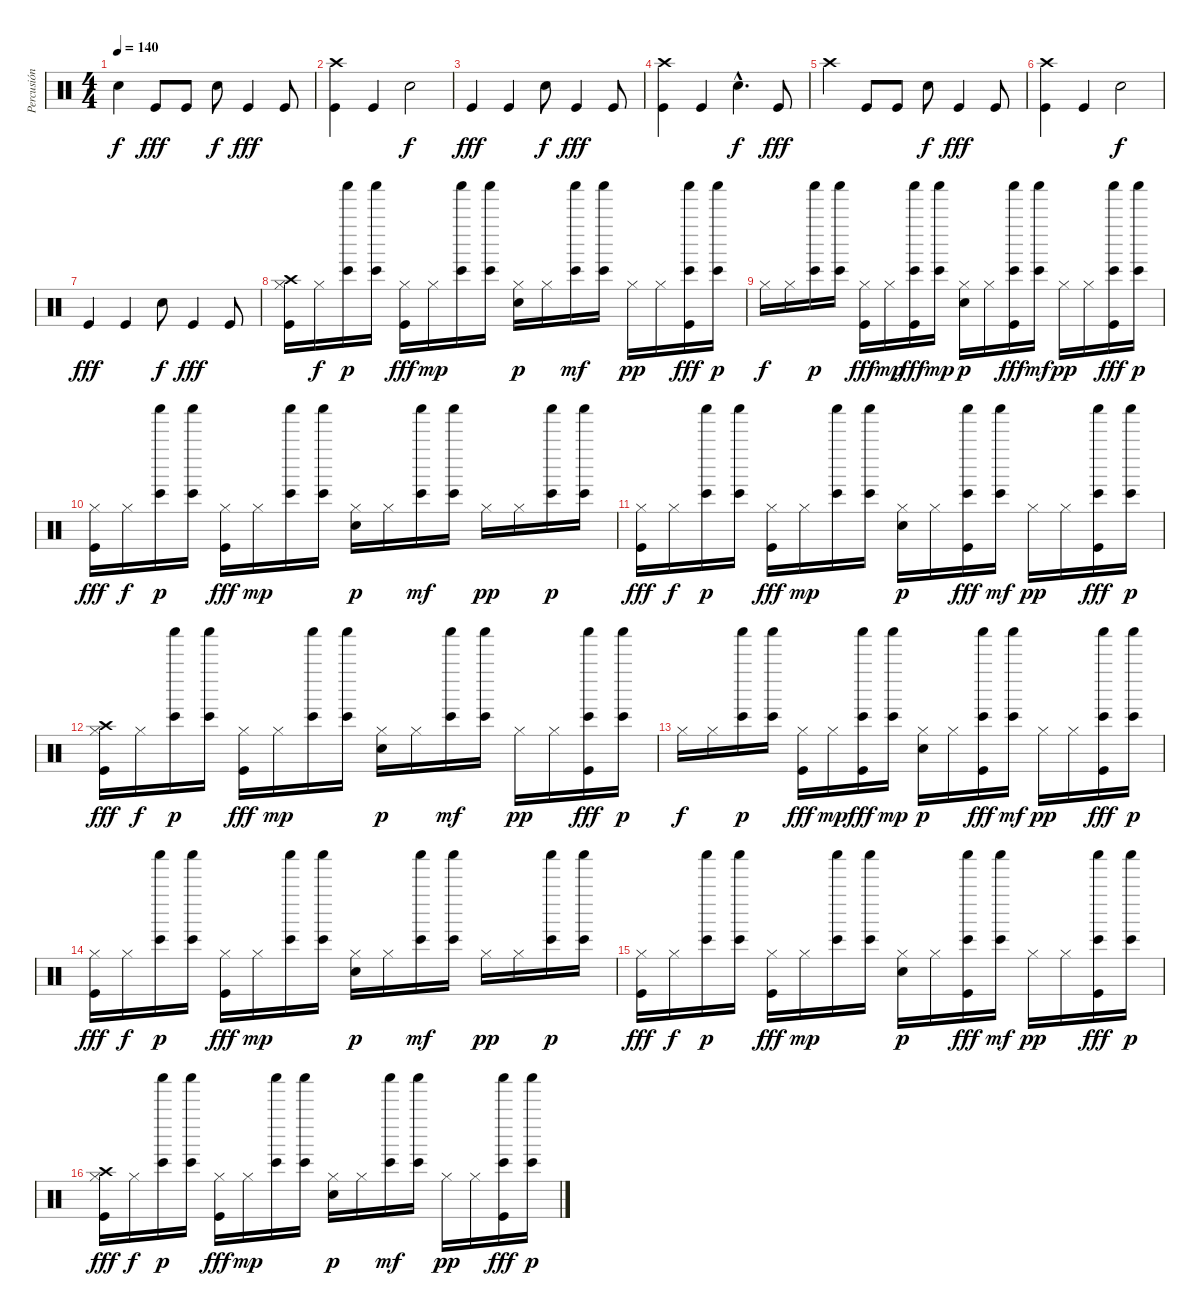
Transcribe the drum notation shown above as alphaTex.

\track ("Percusión" "Percusión") {instrument percussion}
\staff {score}
\articulation defaults
\ts (4 4)
\tempo 140
\clef neutral
\ks c "Snare (hit)"{t}.4{dy f} "Kick (hit)".8{dy fff} "Kick (hit)".8 "Electric Snare (hit)".8{dy f} "Kick (hit)".4{dy fff} "Kick (hit)".8
|
("Crash high (hit)" "Kick (hit)").4 "Kick (hit)".4 "Electric Snare (hit)".2{dy f} |
"Kick (hit)".4{dy fff} "Kick (hit)".4 "Electric Snare (hit)".8{dy f} "Kick (hit)".4{dy fff} "Kick (hit)".8 |
("Crash high (hit)" "Kick (hit)").4 "Kick (hit)".4 "Electric Snare (hit)"{hac}.4{d dy f} "Kick (hit)".8{dy fff} |
"Crash high (hit)".4 "Kick (hit)".8 "Kick (hit)".8 "Electric Snare (hit)".8{dy f} "Kick (hit)".4{dy fff} "Kick (hit)".8 |
("Crash high (hit)" "Kick (hit)").4 "Kick (hit)".4 "Electric Snare (hit)".2{dy f} |
"Kick (hit)".4{dy fff} "Kick (hit)".4 "Electric Snare (hit)".8{dy f} "Kick (hit)".4{dy fff} "Kick (hit)".8 |
("Hi-Hat (closed)" "Crash high (hit)" "Kick (hit)").16{balance 8} "Hi-Hat (closed)".16{dy f} ("Bongo High (hit)" "Shaker (hit)").16{dy p balance 5} ("Bongo High (hit)" "Shaker (hit)").16 ("Hi-Hat (closed)" "Kick (hit)").16{dy fff balance 8} "Hi-Hat (closed)".16{dy mp} ("Bongo High (hit)" "Shaker (hit)").16{balance 6} ("Bongo High (hit)" "Shaker (hit)").16 ("Hi-Hat (closed)" "Electric Snare (hit)").16{dy p balance 8} "Hi-Hat (closed)".16 ("Bongo High (hit)" "Shaker (hit)").16{dy mf balance 10} ("Bongo High (hit)" "Shaker (hit)").16 "Hi-Hat (closed)".16{dy pp balance 8} "Hi-Hat (closed)".16 ("Bongo High (hit)" "Shaker (hit)" "Kick (hit)").16{dy fff balance 11} ("Bongo High (hit)" "Shaker (hit)").16{dy p} |
"Hi-Hat (closed)".16{dy f balance 8} "Hi-Hat (closed)".16 ("Bongo High (hit)" "Shaker (hit)").16{dy p balance 5} ("Bongo High (hit)" "Shaker (hit)").16 ("Hi-Hat (closed)" "Kick (hit)").16{dy fff balance 8} "Hi-Hat (closed)".16{dy mp} ("Bongo High (hit)" "Shaker (hit)" "Kick (hit)").16{dy fff balance 6} ("Bongo High (hit)" "Shaker (hit)").16{dy mp} ("Hi-Hat (closed)" "Electric Snare (hit)").16{dy p balance 8} "Hi-Hat (closed)".16 ("Bongo High (hit)" "Shaker (hit)" "Kick (hit)").16{dy fff balance 10} ("Bongo High (hit)" "Shaker (hit)").16{dy mf} "Hi-Hat (closed)".16{dy pp balance 8} "Hi-Hat (closed)".16 ("Bongo High (hit)" "Shaker (hit)" "Kick (hit)").16{dy fff balance 11} ("Bongo High (hit)" "Shaker (hit)").16{dy p} |
("Hi-Hat (closed)" "Kick (hit)").16{dy fff balance 8} "Hi-Hat (closed)".16{dy f} ("Bongo High (hit)" "Shaker (hit)").16{dy p balance 5} ("Bongo High (hit)" "Shaker (hit)").16 ("Hi-Hat (closed)" "Kick (hit)").16{dy fff balance 8} "Hi-Hat (closed)".16{dy mp} ("Bongo High (hit)" "Shaker (hit)").16{balance 6} ("Bongo High (hit)" "Shaker (hit)").16 ("Hi-Hat (closed)" "Electric Snare (hit)").16{dy p balance 8} "Hi-Hat (closed)".16 ("Bongo High (hit)" "Shaker (hit)").16{dy mf balance 10} ("Bongo High (hit)" "Shaker (hit)").16 "Hi-Hat (closed)".16{dy pp balance 8} "Hi-Hat (closed)".16 ("Bongo High (hit)" "Shaker (hit)").16{dy p balance 11} ("Bongo High (hit)" "Shaker (hit)").16 |
("Hi-Hat (closed)" "Kick (hit)").16{dy fff balance 8} "Hi-Hat (closed)".16{dy f} ("Bongo High (hit)" "Shaker (hit)").16{dy p balance 5} ("Bongo High (hit)" "Shaker (hit)").16 ("Hi-Hat (closed)" "Kick (hit)").16{dy fff balance 8} "Hi-Hat (closed)".16{dy mp} ("Bongo High (hit)" "Shaker (hit)").16{balance 6} ("Bongo High (hit)" "Shaker (hit)").16 ("Hi-Hat (closed)" "Electric Snare (hit)").16{dy p balance 8} "Hi-Hat (closed)".16 ("Bongo High (hit)" "Shaker (hit)" "Kick (hit)").16{dy fff balance 10} ("Bongo High (hit)" "Shaker (hit)").16{dy mf} "Hi-Hat (closed)".16{dy pp balance 8} "Hi-Hat (closed)".16 ("Bongo High (hit)" "Shaker (hit)" "Kick (hit)").16{dy fff balance 11} ("Bongo High (hit)" "Shaker (hit)").16{dy p} |
("Hi-Hat (closed)" "Crash high (hit)" "Kick (hit)").16{dy fff balance 8} "Hi-Hat (closed)".16{dy f} ("Bongo High (hit)" "Shaker (hit)").16{dy p balance 5} ("Bongo High (hit)" "Shaker (hit)").16 ("Hi-Hat (closed)" "Kick (hit)").16{dy fff balance 8} "Hi-Hat (closed)".16{dy mp} ("Bongo High (hit)" "Shaker (hit)").16{balance 6} ("Bongo High (hit)" "Shaker (hit)").16 ("Hi-Hat (closed)" "Electric Snare (hit)").16{dy p balance 8} "Hi-Hat (closed)".16 ("Bongo High (hit)" "Shaker (hit)").16{dy mf balance 10} ("Bongo High (hit)" "Shaker (hit)").16 "Hi-Hat (closed)".16{dy pp balance 8} "Hi-Hat (closed)".16 ("Bongo High (hit)" "Shaker (hit)" "Kick (hit)").16{dy fff balance 11} ("Bongo High (hit)" "Shaker (hit)").16{dy p} |
"Hi-Hat (closed)".16{dy f balance 8} "Hi-Hat (closed)".16 ("Bongo High (hit)" "Shaker (hit)").16{dy p balance 5} ("Bongo High (hit)" "Shaker (hit)").16 ("Hi-Hat (closed)" "Kick (hit)").16{dy fff balance 8} "Hi-Hat (closed)".16{dy mp} ("Bongo High (hit)" "Shaker (hit)" "Kick (hit)").16{dy fff balance 6} ("Bongo High (hit)" "Shaker (hit)").16{dy mp} ("Hi-Hat (closed)" "Electric Snare (hit)").16{dy p balance 8} "Hi-Hat (closed)".16 ("Bongo High (hit)" "Shaker (hit)" "Kick (hit)").16{dy fff balance 10} ("Bongo High (hit)" "Shaker (hit)").16{dy mf} "Hi-Hat (closed)".16{dy pp balance 8} "Hi-Hat (closed)".16 ("Bongo High (hit)" "Shaker (hit)" "Kick (hit)").16{dy fff balance 11} ("Bongo High (hit)" "Shaker (hit)").16{dy p} |
("Hi-Hat (closed)" "Kick (hit)").16{dy fff balance 8} "Hi-Hat (closed)".16{dy f} ("Bongo High (hit)" "Shaker (hit)").16{dy p balance 5} ("Bongo High (hit)" "Shaker (hit)").16 ("Hi-Hat (closed)" "Kick (hit)").16{dy fff balance 8} "Hi-Hat (closed)".16{dy mp} ("Bongo High (hit)" "Shaker (hit)").16{balance 6} ("Bongo High (hit)" "Shaker (hit)").16 ("Hi-Hat (closed)" "Electric Snare (hit)").16{dy p balance 8} "Hi-Hat (closed)".16 ("Bongo High (hit)" "Shaker (hit)").16{dy mf balance 10} ("Bongo High (hit)" "Shaker (hit)").16 "Hi-Hat (closed)".16{dy pp balance 8} "Hi-Hat (closed)".16 ("Bongo High (hit)" "Shaker (hit)").16{dy p balance 11} ("Bongo High (hit)" "Shaker (hit)").16 |
("Hi-Hat (closed)" "Kick (hit)").16{dy fff balance 8} "Hi-Hat (closed)".16{dy f} ("Bongo High (hit)" "Shaker (hit)").16{dy p balance 5} ("Bongo High (hit)" "Shaker (hit)").16 ("Hi-Hat (closed)" "Kick (hit)").16{dy fff balance 8} "Hi-Hat (closed)".16{dy mp} ("Bongo High (hit)" "Shaker (hit)").16{balance 6} ("Bongo High (hit)" "Shaker (hit)").16 ("Hi-Hat (closed)" "Electric Snare (hit)").16{dy p balance 8} "Hi-Hat (closed)".16 ("Bongo High (hit)" "Shaker (hit)" "Kick (hit)").16{dy fff balance 10} ("Bongo High (hit)" "Shaker (hit)").16{dy mf} "Hi-Hat (closed)".16{dy pp balance 8} "Hi-Hat (closed)".16 ("Bongo High (hit)" "Shaker (hit)" "Kick (hit)").16{dy fff balance 11} ("Bongo High (hit)" "Shaker (hit)").16{dy p} |
("Hi-Hat (closed)" "Crash high (hit)" "Kick (hit)").16{dy fff balance 8} "Hi-Hat (closed)".16{dy f} ("Bongo High (hit)" "Shaker (hit)").16{dy p balance 5} ("Bongo High (hit)" "Shaker (hit)").16 ("Hi-Hat (closed)" "Kick (hit)").16{dy fff balance 8} "Hi-Hat (closed)".16{dy mp} ("Bongo High (hit)" "Shaker (hit)").16{balance 6} ("Bongo High (hit)" "Shaker (hit)").16 ("Hi-Hat (closed)" "Electric Snare (hit)").16{dy p balance 8} "Hi-Hat (closed)".16 ("Bongo High (hit)" "Shaker (hit)").16{dy mf balance 10} ("Bongo High (hit)" "Shaker (hit)").16 "Hi-Hat (closed)".16{dy pp balance 8} "Hi-Hat (closed)".16 ("Bongo High (hit)" "Shaker (hit)" "Kick (hit)").16{dy fff balance 11} ("Bongo High (hit)" "Shaker (hit)").16{dy p}
